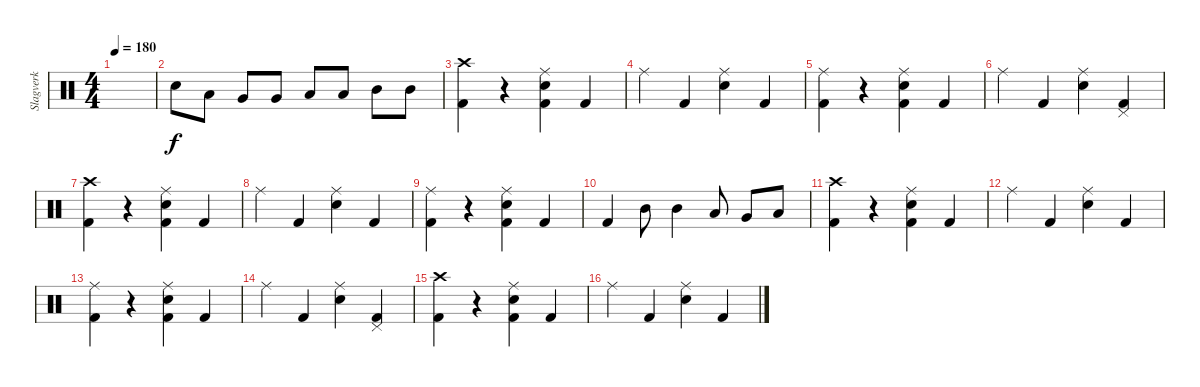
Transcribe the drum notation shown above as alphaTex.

\track ("Slagverk" "Slagverk") {instrument percussion}
\staff {score}
\articulation defaults
\ts (4 4)
\tempo 180
\clef neutral
\ks c
|
"Snare (hit) 2".8 "Low Floor Tom (hit)".8 "Very Low Tom (hit)".8 "Very Low Tom (hit)".8 "Low Tom (hit)".8 "Low Tom (hit)".8 "Mid Tom (hit)".8 "Mid Tom (hit)".8 |
("Kick (hit) 2" "Crash high (hit)").4 r.4 ("Kick (hit) 2" "Snare (hit) 2" "Ride (middle)").4 "Kick (hit) 2".4 |
"Ride (middle)".4 "Kick (hit) 2".4 ("Snare (hit) 2" "Ride (middle)").4 "Kick (hit) 2".4 |
("Kick (hit) 2" "Ride (middle)").4 r.4 ("Kick (hit) 2" "Snare (hit) 2" "Ride (middle)").4 "Kick (hit) 2".4 |
"Ride (middle)".4 "Kick (hit) 2".4 ("Snare (hit) 2" "Ride (middle)").4 ("Kick (hit) 2" "Pedal Hi-Hat (hit)").4 |
("Kick (hit) 2" "Crash high (hit)").4 r.4 ("Kick (hit) 2" "Snare (hit) 2" "Ride (middle)").4 "Kick (hit) 2".4 |
"Ride (middle)".4 "Kick (hit) 2".4 ("Snare (hit) 2" "Ride (middle)").4 "Kick (hit) 2".4 |
("Kick (hit) 2" "Ride (middle)").4 r.4 ("Kick (hit) 2" "Snare (hit) 2" "Ride (middle)").4 "Kick (hit) 2".4 |
"Kick (hit) 2".4 "Mid Tom (hit)".8 "Mid Tom (hit)".4 "Low Tom (hit)".8 "Very Low Tom (hit)".8 "Low Floor Tom (hit)".8 |
("Kick (hit) 2" "Crash high (hit)").4 r.4 ("Kick (hit) 2" "Snare (hit) 2" "Ride (middle)").4 "Kick (hit) 2".4 |
"Ride (middle)".4 "Kick (hit) 2".4 ("Snare (hit) 2" "Ride (middle)").4 "Kick (hit) 2".4 |
("Kick (hit) 2" "Ride (middle)").4 r.4 ("Kick (hit) 2" "Snare (hit) 2" "Ride (middle)").4 "Kick (hit) 2".4 |
"Ride (middle)".4 "Kick (hit) 2".4 ("Snare (hit) 2" "Ride (middle)").4 ("Kick (hit) 2" "Pedal Hi-Hat (hit)").4 |
("Kick (hit) 2" "Crash high (hit)").4 r.4 ("Kick (hit) 2" "Snare (hit) 2" "Ride (middle)").4 "Kick (hit) 2".4 |
"Ride (middle)".4 "Kick (hit) 2".4 ("Snare (hit) 2" "Ride (middle)").4 "Kick (hit) 2".4
